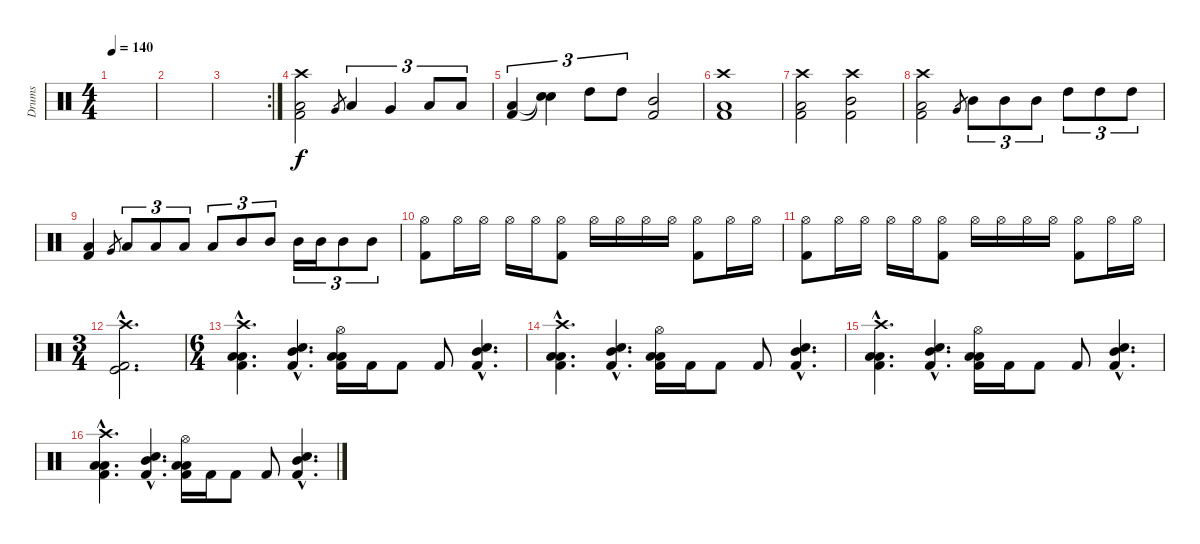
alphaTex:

\track ("Drums" "Drums") {instrument percussion}
\staff {score}
\articulation defaults
\ts (4 4)
\tempo 140
\clef neutral
\ks c
|
|
\rc 2
|
("Crash high (hit)" "Low Tom (hit)" "Kick (hit) 2").2 "Very Low Tom (hit)".8{gr} "Low Tom (hit)".4{tu (3 2)} "Very Low Tom (hit)".4{tu (3 2)} "Low Tom (hit)".8{tu (3 2)} "Low Tom (hit)".8{tu (3 2)} |
("Low Tom (hit)" "Kick (hit) 2").4{tu (3 2)} ("Snare (hit)"{t} "Snare (hit)"{t}).4{tu (3 2)} "High Tom (hit)".8{tu (3 2)} "High Tom (hit)".8{tu (3 2)} ("Mid Tom (hit)" "Kick (hit) 2").2 |
("Crash high (hit)" "Low Tom (hit)" "Kick (hit) 2").1 |
("Crash high (hit)" "Low Tom (hit)" "Kick (hit) 2").2 ("Crash high (hit)" "Mid Tom (hit)" "Kick (hit) 2").2 |
("Crash high (hit)" "Low Tom (hit)" "Kick (hit) 2").2 "Very Low Tom (hit)".8{gr} "Mid Tom (hit)".8{tu (3 2)} "Mid Tom (hit)".8{tu (3 2)} "Mid Tom (hit)".8{tu (3 2)} "High Tom (hit)".8{tu (3 2)} "High Tom (hit)".8{tu (3 2)} "High Tom (hit)".8{tu (3 2)} |
("Low Tom (hit)" "Kick (hit) 2").4 "Very Low Tom (hit)".8{gr} "Low Tom (hit)".8{tu (3 2)} "Low Tom (hit)".8{tu (3 2)} "Low Tom (hit)".8{tu (3 2)} "Low Tom (hit)".8{tu (3 2)} "Mid Tom (hit)".8{tu (3 2)} "Mid Tom (hit)".8{tu (3 2)} "Mid Tom (hit)".16{tu (3 2)} "Mid Tom (hit)".16{tu (3 2)} "Mid Tom (hit)".8{tu (3 2)} "Mid Tom (hit)".8{tu (3 2)} |
("Hi-Hat (open)" "Kick (hit) 2").8 "Hi-Hat (open)".16 "Hi-Hat (open)".16 "Hi-Hat (open)".16 "Hi-Hat (open)".16 ("Hi-Hat (open)" "Kick (hit) 2").8 "Hi-Hat (open)".16 "Hi-Hat (open)".16 "Hi-Hat (open)".16 "Hi-Hat (open)".16 ("Hi-Hat (open)" "Kick (hit) 2").8 "Hi-Hat (open)".16 "Hi-Hat (open)".16 |
("Hi-Hat (open)" "Kick (hit) 2").8 "Hi-Hat (open)".16 "Hi-Hat (open)".16 "Hi-Hat (open)".16 "Hi-Hat (open)".16 ("Hi-Hat (open)" "Kick (hit) 2").8 "Hi-Hat (open)".16 "Hi-Hat (open)".16 "Hi-Hat (open)".16 "Hi-Hat (open)".16 ("Hi-Hat (open)" "Kick (hit) 2").8 "Hi-Hat (open)".16 "Hi-Hat (open)".16 |
\ts (3 4)
("Crash high (hit)"{hac} "Kick (hit)"{hac} "Kick (hit) 2"{hac}).2{d} |
\ts (6 4)
("Crash high (hit)"{hac} "Low Tom (hit)"{hac} "Low Tom (hit)"{hac} "Kick (hit) 2"{hac}).4{d} ("Snare (hit) 2"{hac} "Mid Tom (hit)"{hac} "Kick (hit) 2"{hac}).4{d} ("Hi-Hat (open)" "Low Tom (hit)" "Low Tom (hit)" "Kick (hit) 2").16 "Kick (hit) 2".16 "Kick (hit) 2".8 "Kick (hit) 2".8 ("Snare (hit) 2"{hac} "Mid Tom (hit)"{hac} "Kick (hit) 2"{hac}).4{d} |
("Crash high (hit)"{hac} "Low Tom (hit)"{hac} "Low Tom (hit)"{hac} "Kick (hit) 2"{hac}).4{d} ("Snare (hit) 2"{hac} "Mid Tom (hit)"{hac} "Kick (hit) 2"{hac}).4{d} ("Hi-Hat (open)" "Low Tom (hit)" "Low Tom (hit)" "Kick (hit) 2").16 "Kick (hit) 2".16 "Kick (hit) 2".8 "Kick (hit) 2".8 ("Snare (hit) 2"{hac} "Mid Tom (hit)"{hac} "Kick (hit) 2"{hac}).4{d} |
("Crash high (hit)"{hac} "Low Tom (hit)"{hac} "Low Tom (hit)"{hac} "Kick (hit) 2"{hac}).4{d} ("Snare (hit) 2"{hac} "Mid Tom (hit)"{hac} "Kick (hit) 2"{hac}).4{d} ("Hi-Hat (open)" "Low Tom (hit)" "Low Tom (hit)" "Kick (hit) 2").16 "Kick (hit) 2".16 "Kick (hit) 2".8 "Kick (hit) 2".8 ("Snare (hit) 2"{hac} "Mid Tom (hit)"{hac} "Kick (hit) 2"{hac}).4{d} |
("Crash high (hit)"{hac} "Low Tom (hit)"{hac} "Low Tom (hit)"{hac} "Kick (hit) 2"{hac}).4{d} ("Snare (hit) 2"{hac} "Mid Tom (hit)"{hac} "Kick (hit) 2"{hac}).4{d} ("Hi-Hat (open)" "Low Tom (hit)" "Low Tom (hit)" "Kick (hit) 2").16 "Kick (hit) 2".16 "Kick (hit) 2".8 "Kick (hit) 2".8 ("Snare (hit) 2"{hac} "Mid Tom (hit)"{hac} "Kick (hit) 2"{hac}).4{d}
